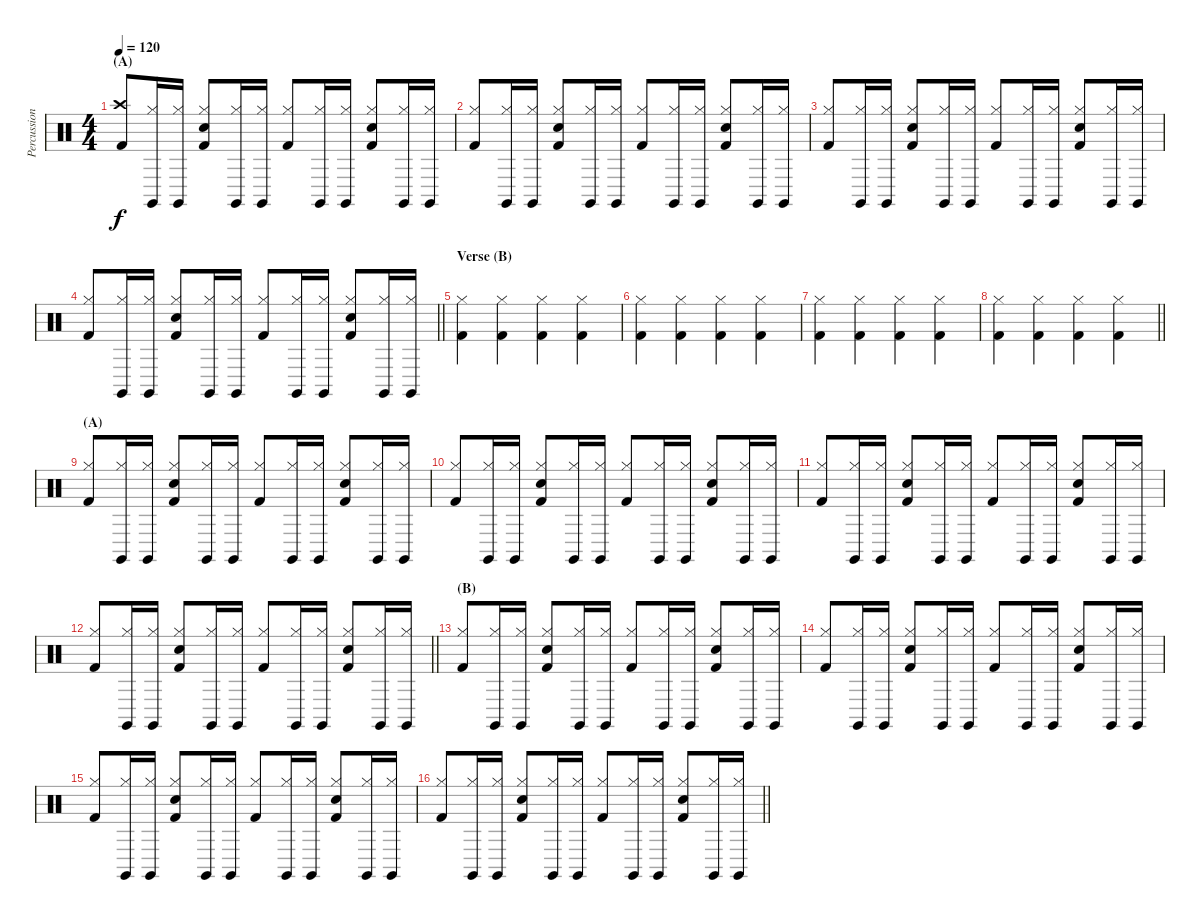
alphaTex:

\track ("Percussion" "Percussion") {instrument percussion}
\staff {score}
\articulation defaults
\ts (4 4)
\section ("" "(A)")
\tempo 120
\clef neutral
\ks c
("Crash high (hit)" "Kick (hit) 2").8{dy f} ("Hi-Hat (closed)" "Claves (hit)").16 ("Hi-Hat (closed)" "Claves (hit)").16 ("Hi-Hat (closed)" "Electric Snare (hit)" "Kick (hit) 2").8 ("Hi-Hat (closed)" "Claves (hit)").16 ("Hi-Hat (closed)" "Claves (hit)").16 ("Hi-Hat (closed)" "Kick (hit) 2").8 ("Hi-Hat (closed)" "Claves (hit)").16 ("Hi-Hat (closed)" "Claves (hit)").16 ("Hi-Hat (closed)" "Electric Snare (hit)" "Kick (hit) 2").8 ("Hi-Hat (closed)" "Claves (hit)").16 ("Hi-Hat (closed)" "Claves (hit)").16 |
("Hi-Hat (closed)" "Kick (hit) 2").8 ("Hi-Hat (closed)" "Claves (hit)").16 ("Hi-Hat (closed)" "Claves (hit)").16 ("Hi-Hat (closed)" "Electric Snare (hit)" "Kick (hit) 2").8 ("Hi-Hat (closed)" "Claves (hit)").16 ("Hi-Hat (closed)" "Claves (hit)").16 ("Hi-Hat (closed)" "Kick (hit) 2").8 ("Hi-Hat (closed)" "Claves (hit)").16 ("Hi-Hat (closed)" "Claves (hit)").16 ("Hi-Hat (closed)" "Electric Snare (hit)" "Kick (hit) 2").8 ("Hi-Hat (closed)" "Claves (hit)").16 ("Hi-Hat (closed)" "Claves (hit)").16 |
("Hi-Hat (closed)" "Kick (hit) 2").8 ("Hi-Hat (closed)" "Claves (hit)").16 ("Hi-Hat (closed)" "Claves (hit)").16 ("Hi-Hat (closed)" "Electric Snare (hit)" "Kick (hit) 2").8 ("Hi-Hat (closed)" "Claves (hit)").16 ("Hi-Hat (closed)" "Claves (hit)").16 ("Hi-Hat (closed)" "Kick (hit) 2").8 ("Hi-Hat (closed)" "Claves (hit)").16 ("Hi-Hat (closed)" "Claves (hit)").16 ("Hi-Hat (closed)" "Electric Snare (hit)" "Kick (hit) 2").8 ("Hi-Hat (closed)" "Claves (hit)").16 ("Hi-Hat (closed)" "Claves (hit)").16 |
\barLineRight lightlight
("Hi-Hat (closed)" "Kick (hit) 2").8 ("Hi-Hat (closed)" "Claves (hit)").16 ("Hi-Hat (closed)" "Claves (hit)").16 ("Hi-Hat (closed)" "Electric Snare (hit)" "Kick (hit) 2").8 ("Hi-Hat (closed)" "Claves (hit)").16 ("Hi-Hat (closed)" "Claves (hit)").16 ("Hi-Hat (closed)" "Kick (hit) 2").8 ("Hi-Hat (closed)" "Claves (hit)").16 ("Hi-Hat (closed)" "Claves (hit)").16 ("Hi-Hat (closed)" "Electric Snare (hit)" "Kick (hit) 2").8 ("Hi-Hat (closed)" "Claves (hit)").16 ("Hi-Hat (closed)" "Claves (hit)").16 |
\section ("" "Verse (B)")
("Hi-Hat (closed)" "Kick (hit) 2").4 ("Hi-Hat (closed)" "Kick (hit) 2").4 ("Hi-Hat (closed)" "Kick (hit) 2").4 ("Hi-Hat (closed)" "Kick (hit) 2").4 |
("Hi-Hat (closed)" "Kick (hit) 2").4 ("Hi-Hat (closed)" "Kick (hit) 2").4 ("Hi-Hat (closed)" "Kick (hit) 2").4 ("Hi-Hat (closed)" "Kick (hit) 2").4 |
("Hi-Hat (closed)" "Kick (hit) 2").4 ("Hi-Hat (closed)" "Kick (hit) 2").4 ("Hi-Hat (closed)" "Kick (hit) 2").4 ("Hi-Hat (closed)" "Kick (hit) 2").4 |
\barLineRight lightlight
("Hi-Hat (closed)" "Kick (hit) 2").4 ("Hi-Hat (closed)" "Kick (hit) 2").4 ("Hi-Hat (closed)" "Kick (hit) 2").4 ("Hi-Hat (closed)" "Kick (hit) 2").4 |
\section ("" "(A)")
("Hi-Hat (closed)" "Kick (hit) 2").8 ("Hi-Hat (closed)" "Claves (hit)").16 ("Hi-Hat (closed)" "Claves (hit)").16 ("Hi-Hat (closed)" "Electric Snare (hit)" "Kick (hit) 2").8 ("Hi-Hat (closed)" "Claves (hit)").16 ("Hi-Hat (closed)" "Claves (hit)").16 ("Hi-Hat (closed)" "Kick (hit) 2").8 ("Hi-Hat (closed)" "Claves (hit)").16 ("Hi-Hat (closed)" "Claves (hit)").16 ("Hi-Hat (closed)" "Electric Snare (hit)" "Kick (hit) 2").8 ("Hi-Hat (closed)" "Claves (hit)").16 ("Hi-Hat (closed)" "Claves (hit)").16 |
("Hi-Hat (closed)" "Kick (hit) 2").8 ("Hi-Hat (closed)" "Claves (hit)").16 ("Hi-Hat (closed)" "Claves (hit)").16 ("Hi-Hat (closed)" "Electric Snare (hit)" "Kick (hit) 2").8 ("Hi-Hat (closed)" "Claves (hit)").16 ("Hi-Hat (closed)" "Claves (hit)").16 ("Hi-Hat (closed)" "Kick (hit) 2").8 ("Hi-Hat (closed)" "Claves (hit)").16 ("Hi-Hat (closed)" "Claves (hit)").16 ("Hi-Hat (closed)" "Electric Snare (hit)" "Kick (hit) 2").8 ("Hi-Hat (closed)" "Claves (hit)").16 ("Hi-Hat (closed)" "Claves (hit)").16 |
("Hi-Hat (closed)" "Kick (hit) 2").8 ("Hi-Hat (closed)" "Claves (hit)").16 ("Hi-Hat (closed)" "Claves (hit)").16 ("Hi-Hat (closed)" "Electric Snare (hit)" "Kick (hit) 2").8 ("Hi-Hat (closed)" "Claves (hit)").16 ("Hi-Hat (closed)" "Claves (hit)").16 ("Hi-Hat (closed)" "Kick (hit) 2").8 ("Hi-Hat (closed)" "Claves (hit)").16 ("Hi-Hat (closed)" "Claves (hit)").16 ("Hi-Hat (closed)" "Electric Snare (hit)" "Kick (hit) 2").8 ("Hi-Hat (closed)" "Claves (hit)").16 ("Hi-Hat (closed)" "Claves (hit)").16 |
\barLineRight lightlight
("Hi-Hat (closed)" "Kick (hit) 2").8 ("Hi-Hat (closed)" "Claves (hit)").16 ("Hi-Hat (closed)" "Claves (hit)").16 ("Hi-Hat (closed)" "Electric Snare (hit)" "Kick (hit) 2").8 ("Hi-Hat (closed)" "Claves (hit)").16 ("Hi-Hat (closed)" "Claves (hit)").16 ("Hi-Hat (closed)" "Kick (hit) 2").8 ("Hi-Hat (closed)" "Claves (hit)").16 ("Hi-Hat (closed)" "Claves (hit)").16 ("Hi-Hat (closed)" "Electric Snare (hit)" "Kick (hit) 2").8 ("Hi-Hat (closed)" "Claves (hit)").16 ("Hi-Hat (closed)" "Claves (hit)").16 |
\section ("" "(B)")
("Hi-Hat (closed)" "Kick (hit) 2").8 ("Hi-Hat (closed)" "Claves (hit)").16 ("Hi-Hat (closed)" "Claves (hit)").16 ("Hi-Hat (closed)" "Electric Snare (hit)" "Kick (hit) 2").8 ("Hi-Hat (closed)" "Claves (hit)").16 ("Hi-Hat (closed)" "Claves (hit)").16 ("Hi-Hat (closed)" "Kick (hit) 2").8 ("Hi-Hat (closed)" "Claves (hit)").16 ("Hi-Hat (closed)" "Claves (hit)").16 ("Hi-Hat (closed)" "Electric Snare (hit)" "Kick (hit) 2").8 ("Hi-Hat (closed)" "Claves (hit)").16 ("Hi-Hat (closed)" "Claves (hit)").16 |
("Hi-Hat (closed)" "Kick (hit) 2").8 ("Hi-Hat (closed)" "Claves (hit)").16 ("Hi-Hat (closed)" "Claves (hit)").16 ("Hi-Hat (closed)" "Electric Snare (hit)" "Kick (hit) 2").8 ("Hi-Hat (closed)" "Claves (hit)").16 ("Hi-Hat (closed)" "Claves (hit)").16 ("Hi-Hat (closed)" "Kick (hit) 2").8 ("Hi-Hat (closed)" "Claves (hit)").16 ("Hi-Hat (closed)" "Claves (hit)").16 ("Hi-Hat (closed)" "Electric Snare (hit)" "Kick (hit) 2").8 ("Hi-Hat (closed)" "Claves (hit)").16 ("Hi-Hat (closed)" "Claves (hit)").16 |
("Hi-Hat (closed)" "Kick (hit) 2").8 ("Hi-Hat (closed)" "Claves (hit)").16 ("Hi-Hat (closed)" "Claves (hit)").16 ("Hi-Hat (closed)" "Electric Snare (hit)" "Kick (hit) 2").8 ("Hi-Hat (closed)" "Claves (hit)").16 ("Hi-Hat (closed)" "Claves (hit)").16 ("Hi-Hat (closed)" "Kick (hit) 2").8 ("Hi-Hat (closed)" "Claves (hit)").16 ("Hi-Hat (closed)" "Claves (hit)").16 ("Hi-Hat (closed)" "Electric Snare (hit)" "Kick (hit) 2").8 ("Hi-Hat (closed)" "Claves (hit)").16 ("Hi-Hat (closed)" "Claves (hit)").16 |
\barLineRight lightlight
("Hi-Hat (closed)" "Kick (hit) 2").8 ("Hi-Hat (closed)" "Claves (hit)").16 ("Hi-Hat (closed)" "Claves (hit)").16 ("Hi-Hat (closed)" "Electric Snare (hit)" "Kick (hit) 2").8 ("Hi-Hat (closed)" "Claves (hit)").16 ("Hi-Hat (closed)" "Claves (hit)").16 ("Hi-Hat (closed)" "Kick (hit) 2").8 ("Hi-Hat (closed)" "Claves (hit)").16 ("Hi-Hat (closed)" "Claves (hit)").16 ("Hi-Hat (closed)" "Electric Snare (hit)" "Kick (hit) 2").8 ("Hi-Hat (closed)" "Claves (hit)").16 ("Hi-Hat (closed)" "Claves (hit)").16
